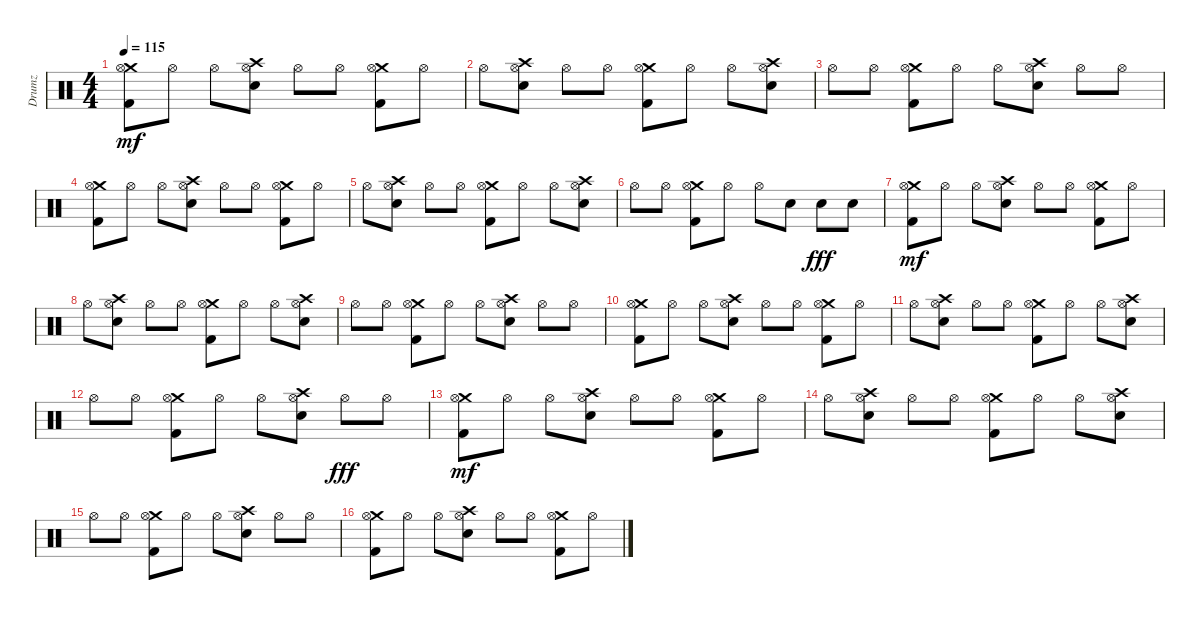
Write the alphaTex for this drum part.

\track ("Drumz" "Drumz") {instrument percussion}
\staff
\articulation defaults
\ts (4 4)
\tempo 115
\clef neutral
\ks c
("Crash medium (hit)" "Hi-Hat (open)" "Kick (hit) 2").8{dy mf} "Hi-Hat (open)".8 "Hi-Hat (open)".8 ("Crash high (hit)" "Hi-Hat (open)" "Snare (hit) 2").8 "Hi-Hat (open)".8 "Hi-Hat (open)".8 ("Crash medium (hit)" "Hi-Hat (open)" "Kick (hit) 2").8 "Hi-Hat (open)".8 |
"Hi-Hat (open)".8 ("Crash high (hit)" "Hi-Hat (open)" "Snare (hit) 2").8 "Hi-Hat (open)".8 "Hi-Hat (open)".8 ("Crash medium (hit)" "Hi-Hat (open)" "Kick (hit) 2").8 "Hi-Hat (open)".8 "Hi-Hat (open)".8 ("Crash high (hit)" "Hi-Hat (open)" "Snare (hit) 2").8 |
"Hi-Hat (open)".8 "Hi-Hat (open)".8 ("Crash medium (hit)" "Hi-Hat (open)" "Kick (hit) 2").8 "Hi-Hat (open)".8 "Hi-Hat (open)".8 ("Crash high (hit)" "Hi-Hat (open)" "Snare (hit) 2").8 "Hi-Hat (open)".8 "Hi-Hat (open)".8 |
("Crash medium (hit)" "Hi-Hat (open)" "Kick (hit) 2").8 "Hi-Hat (open)".8 "Hi-Hat (open)".8 ("Crash high (hit)" "Hi-Hat (open)" "Snare (hit) 2").8 "Hi-Hat (open)".8 "Hi-Hat (open)".8 ("Crash medium (hit)" "Hi-Hat (open)" "Kick (hit) 2").8 "Hi-Hat (open)".8 |
"Hi-Hat (open)".8 ("Crash high (hit)" "Hi-Hat (open)" "Snare (hit) 2").8 "Hi-Hat (open)".8 "Hi-Hat (open)".8 ("Crash medium (hit)" "Hi-Hat (open)" "Kick (hit) 2").8 "Hi-Hat (open)".8 "Hi-Hat (open)".8 ("Crash high (hit)" "Hi-Hat (open)" "Snare (hit) 2").8 |
"Hi-Hat (open)".8 "Hi-Hat (open)".8 ("Crash medium (hit)" "Hi-Hat (open)" "Kick (hit) 2").8 "Hi-Hat (open)".8 "Hi-Hat (open)".8 "Snare (hit) 2".8 "Snare (hit) 2".8{dy fff} "Snare (hit) 2".8 |
("Crash medium (hit)" "Hi-Hat (open)" "Kick (hit) 2").8{dy mf} "Hi-Hat (open)".8 "Hi-Hat (open)".8 ("Crash high (hit)" "Hi-Hat (open)" "Snare (hit) 2").8 "Hi-Hat (open)".8 "Hi-Hat (open)".8 ("Crash medium (hit)" "Hi-Hat (open)" "Kick (hit) 2").8 "Hi-Hat (open)".8 |
"Hi-Hat (open)".8 ("Crash high (hit)" "Hi-Hat (open)" "Snare (hit) 2").8 "Hi-Hat (open)".8 "Hi-Hat (open)".8 ("Crash medium (hit)" "Hi-Hat (open)" "Kick (hit) 2").8 "Hi-Hat (open)".8 "Hi-Hat (open)".8 ("Crash high (hit)" "Hi-Hat (open)" "Snare (hit) 2").8 |
"Hi-Hat (open)".8 "Hi-Hat (open)".8 ("Crash medium (hit)" "Hi-Hat (open)" "Kick (hit) 2").8 "Hi-Hat (open)".8 "Hi-Hat (open)".8 ("Crash high (hit)" "Hi-Hat (open)" "Snare (hit) 2").8 "Hi-Hat (open)".8 "Hi-Hat (open)".8 |
("Crash medium (hit)" "Hi-Hat (open)" "Kick (hit) 2").8 "Hi-Hat (open)".8 "Hi-Hat (open)".8 ("Crash high (hit)" "Hi-Hat (open)" "Snare (hit) 2").8 "Hi-Hat (open)".8 "Hi-Hat (open)".8 ("Crash medium (hit)" "Hi-Hat (open)" "Kick (hit) 2").8 "Hi-Hat (open)".8 |
"Hi-Hat (open)".8 ("Crash high (hit)" "Hi-Hat (open)" "Snare (hit) 2").8 "Hi-Hat (open)".8 "Hi-Hat (open)".8 ("Crash medium (hit)" "Hi-Hat (open)" "Kick (hit) 2").8 "Hi-Hat (open)".8 "Hi-Hat (open)".8 ("Crash high (hit)" "Hi-Hat (open)" "Snare (hit) 2").8 |
"Hi-Hat (open)".8 "Hi-Hat (open)".8 ("Crash medium (hit)" "Hi-Hat (open)" "Kick (hit) 2").8 "Hi-Hat (open)".8 "Hi-Hat (open)".8 ("Crash high (hit)" "Hi-Hat (open)" "Snare (hit) 2").8 "Hi-Hat (open)".8{dy fff} "Hi-Hat (open)".8 |
("Crash medium (hit)" "Hi-Hat (open)" "Kick (hit) 2").8{dy mf} "Hi-Hat (open)".8 "Hi-Hat (open)".8 ("Crash high (hit)" "Hi-Hat (open)" "Snare (hit) 2").8 "Hi-Hat (open)".8 "Hi-Hat (open)".8 ("Crash medium (hit)" "Hi-Hat (open)" "Kick (hit) 2").8 "Hi-Hat (open)".8 |
"Hi-Hat (open)".8 ("Crash high (hit)" "Hi-Hat (open)" "Snare (hit) 2").8 "Hi-Hat (open)".8 "Hi-Hat (open)".8 ("Crash medium (hit)" "Hi-Hat (open)" "Kick (hit) 2").8 "Hi-Hat (open)".8 "Hi-Hat (open)".8 ("Crash high (hit)" "Hi-Hat (open)" "Snare (hit) 2").8 |
"Hi-Hat (open)".8 "Hi-Hat (open)".8 ("Crash medium (hit)" "Hi-Hat (open)" "Kick (hit) 2").8 "Hi-Hat (open)".8 "Hi-Hat (open)".8 ("Crash high (hit)" "Hi-Hat (open)" "Snare (hit) 2").8 "Hi-Hat (open)".8 "Hi-Hat (open)".8 |
("Crash medium (hit)" "Hi-Hat (open)" "Kick (hit) 2").8 "Hi-Hat (open)".8 "Hi-Hat (open)".8 ("Crash high (hit)" "Hi-Hat (open)" "Snare (hit) 2").8 "Hi-Hat (open)".8 "Hi-Hat (open)".8 ("Crash medium (hit)" "Hi-Hat (open)" "Kick (hit) 2").8 "Hi-Hat (open)".8
